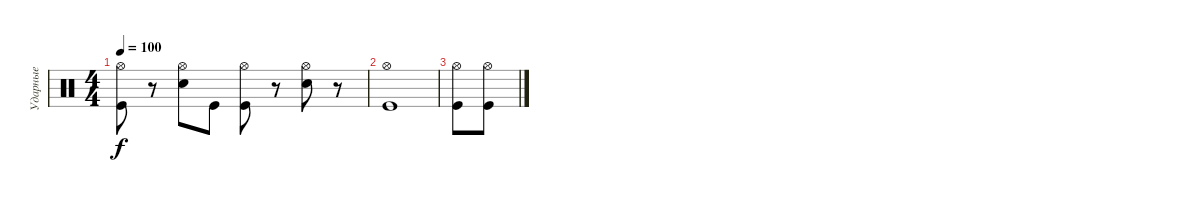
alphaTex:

\track ("Ударные" "Ударные") {instrument percussion}
\staff
\articulation defaults
\ts (4 4)
\tempo 100
\clef neutral
\ks c
("Hi-Hat (open)" "Kick (hit)").8{dy f} r.8 ("Hi-Hat (open)" "Snare (hit) 2").8 "Kick (hit)".8 ("Hi-Hat (open)" "Kick (hit)").8 r.8 ("Hi-Hat (open)" "Snare (hit) 2").8 r.8 |
("Hi-Hat (open)" "Kick (hit)").1 |
("Hi-Hat (open)" "Kick (hit)").8 ("Hi-Hat (open)" "Kick (hit)").8
